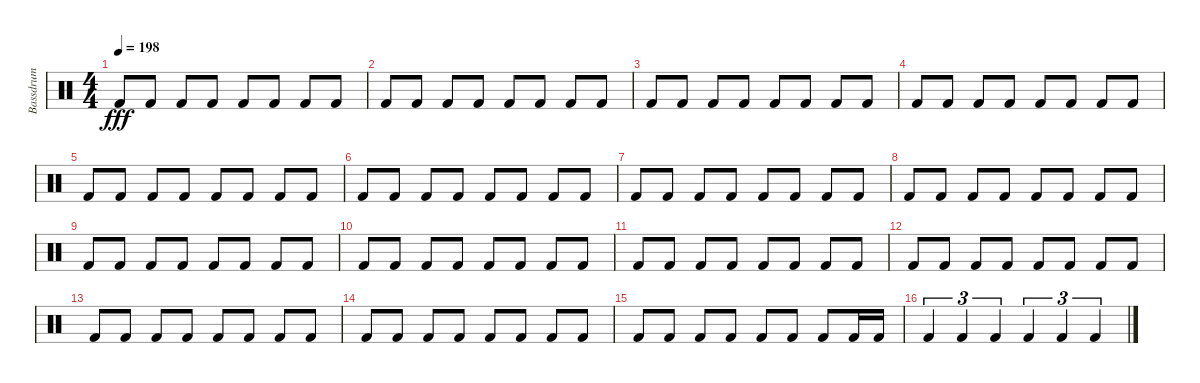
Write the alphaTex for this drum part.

\track ("Bassdrum" "Bassdrum") {instrument percussion}
\staff {score}
\articulation defaults
\ts (4 4)
\section ("" "")
\tempo 198
\clef neutral
\ks c "Kick (hit) 2".8{dy fff volume 6} "Kick (hit) 2".8 "Kick (hit) 2".8 "Kick (hit) 2".8 "Kick (hit) 2".8 "Kick (hit) 2".8 "Kick (hit) 2".8 "Kick (hit) 2".8
|
"Kick (hit) 2".8 "Kick (hit) 2".8 "Kick (hit) 2".8 "Kick (hit) 2".8 "Kick (hit) 2".8 "Kick (hit) 2".8 "Kick (hit) 2".8 "Kick (hit) 2".8 |
"Kick (hit) 2".8 "Kick (hit) 2".8 "Kick (hit) 2".8 "Kick (hit) 2".8 "Kick (hit) 2".8 "Kick (hit) 2".8 "Kick (hit) 2".8 "Kick (hit) 2".8 |
"Kick (hit) 2".8 "Kick (hit) 2".8 "Kick (hit) 2".8 "Kick (hit) 2".8 "Kick (hit) 2".8 "Kick (hit) 2".8 "Kick (hit) 2".8 "Kick (hit) 2".8 |
"Kick (hit) 2".8{volume 4} "Kick (hit) 2".8 "Kick (hit) 2".8 "Kick (hit) 2".8 "Kick (hit) 2".8 "Kick (hit) 2".8 "Kick (hit) 2".8 "Kick (hit) 2".8 |
"Kick (hit) 2".8 "Kick (hit) 2".8 "Kick (hit) 2".8 "Kick (hit) 2".8 "Kick (hit) 2".8 "Kick (hit) 2".8 "Kick (hit) 2".8 "Kick (hit) 2".8 |
"Kick (hit) 2".8 "Kick (hit) 2".8 "Kick (hit) 2".8 "Kick (hit) 2".8 "Kick (hit) 2".8 "Kick (hit) 2".8 "Kick (hit) 2".8 "Kick (hit) 2".8 |
"Kick (hit) 2".8 "Kick (hit) 2".8 "Kick (hit) 2".8 "Kick (hit) 2".8 "Kick (hit) 2".8 "Kick (hit) 2".8 "Kick (hit) 2".8 "Kick (hit) 2".8 |
"Kick (hit) 2".8{volume 2} "Kick (hit) 2".8 "Kick (hit) 2".8 "Kick (hit) 2".8 "Kick (hit) 2".8 "Kick (hit) 2".8 "Kick (hit) 2".8 "Kick (hit) 2".8 |
"Kick (hit) 2".8 "Kick (hit) 2".8 "Kick (hit) 2".8 "Kick (hit) 2".8 "Kick (hit) 2".8 "Kick (hit) 2".8 "Kick (hit) 2".8 "Kick (hit) 2".8 |
"Kick (hit) 2".8 "Kick (hit) 2".8 "Kick (hit) 2".8 "Kick (hit) 2".8 "Kick (hit) 2".8 "Kick (hit) 2".8 "Kick (hit) 2".8 "Kick (hit) 2".8 |
"Kick (hit) 2".8 "Kick (hit) 2".8 "Kick (hit) 2".8 "Kick (hit) 2".8 "Kick (hit) 2".8 "Kick (hit) 2".8 "Kick (hit) 2".8 "Kick (hit) 2".8 |
"Kick (hit) 2".8{volume 0} "Kick (hit) 2".8 "Kick (hit) 2".8 "Kick (hit) 2".8 "Kick (hit) 2".8 "Kick (hit) 2".8 "Kick (hit) 2".8 "Kick (hit) 2".8 |
"Kick (hit) 2".8 "Kick (hit) 2".8 "Kick (hit) 2".8 "Kick (hit) 2".8 "Kick (hit) 2".8 "Kick (hit) 2".8 "Kick (hit) 2".8 "Kick (hit) 2".8 |
"Kick (hit) 2".8 "Kick (hit) 2".8 "Kick (hit) 2".8 "Kick (hit) 2".8 "Kick (hit) 2".8 "Kick (hit) 2".8 "Kick (hit) 2".8 "Kick (hit) 2".16 "Kick (hit) 2".16 |
"Kick (hit) 2".4{tu (3 2)} "Kick (hit) 2".4{tu (3 2)} "Kick (hit) 2".4{tu (3 2)} "Kick (hit) 2".4{tu (3 2)} "Kick (hit) 2".4{tu (3 2)} "Kick (hit) 2".4{tu (3 2)}
